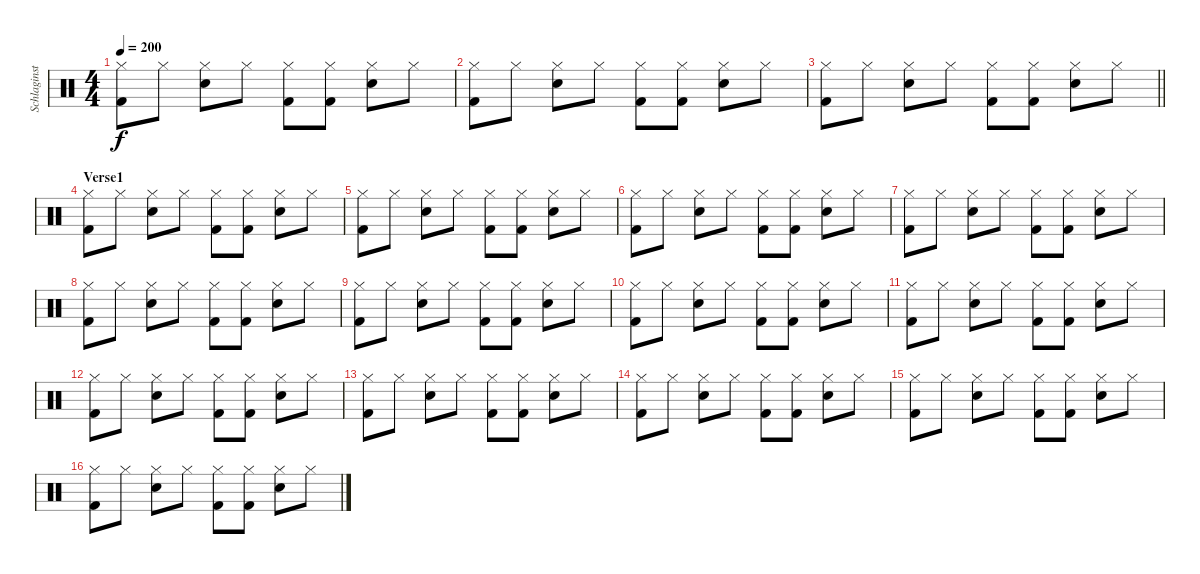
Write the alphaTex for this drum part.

\track ("Schlaginstrumente - Auswahl" "Schlaginst") {instrument percussion}
\staff {score}
\articulation defaults
\ts (4 4)
\tempo 200
\clef neutral
\ks c
("Hi-Hat (closed)" "Kick (hit) 2").8{dy f} "Hi-Hat (closed)".8 ("Hi-Hat (closed)" "Electric Snare (hit)").8 "Hi-Hat (closed)".8 ("Hi-Hat (closed)" "Kick (hit) 2").8 ("Hi-Hat (closed)" "Kick (hit) 2").8 ("Hi-Hat (closed)" "Electric Snare (hit)").8 "Hi-Hat (closed)".8 |
("Hi-Hat (closed)" "Kick (hit) 2").8 "Hi-Hat (closed)".8 ("Hi-Hat (closed)" "Electric Snare (hit)").8 "Hi-Hat (closed)".8 ("Hi-Hat (closed)" "Kick (hit) 2").8 ("Hi-Hat (closed)" "Kick (hit) 2").8 ("Hi-Hat (closed)" "Electric Snare (hit)").8 "Hi-Hat (closed)".8 |
\barLineRight lightlight
("Hi-Hat (closed)" "Kick (hit) 2").8 "Hi-Hat (closed)".8 ("Hi-Hat (closed)" "Electric Snare (hit)").8 "Hi-Hat (closed)".8 ("Hi-Hat (closed)" "Kick (hit) 2").8 ("Hi-Hat (closed)" "Kick (hit) 2").8 ("Hi-Hat (closed)" "Electric Snare (hit)").8 "Hi-Hat (closed)".8 |
\section ("" "Verse1")
("Hi-Hat (closed)" "Kick (hit) 2").8 "Hi-Hat (closed)".8 ("Hi-Hat (closed)" "Electric Snare (hit)").8 "Hi-Hat (closed)".8 ("Hi-Hat (closed)" "Kick (hit) 2").8 ("Hi-Hat (closed)" "Kick (hit) 2").8 ("Hi-Hat (closed)" "Electric Snare (hit)").8 "Hi-Hat (closed)".8 |
("Hi-Hat (closed)" "Kick (hit) 2").8 "Hi-Hat (closed)".8 ("Hi-Hat (closed)" "Electric Snare (hit)").8 "Hi-Hat (closed)".8 ("Hi-Hat (closed)" "Kick (hit) 2").8 ("Hi-Hat (closed)" "Kick (hit) 2").8 ("Hi-Hat (closed)" "Electric Snare (hit)").8 "Hi-Hat (closed)".8 |
("Hi-Hat (closed)" "Kick (hit) 2").8 "Hi-Hat (closed)".8 ("Hi-Hat (closed)" "Electric Snare (hit)").8 "Hi-Hat (closed)".8 ("Hi-Hat (closed)" "Kick (hit) 2").8 ("Hi-Hat (closed)" "Kick (hit) 2").8 ("Hi-Hat (closed)" "Electric Snare (hit)").8 "Hi-Hat (closed)".8 |
("Hi-Hat (closed)" "Kick (hit) 2").8 "Hi-Hat (closed)".8 ("Hi-Hat (closed)" "Electric Snare (hit)").8 "Hi-Hat (closed)".8 ("Hi-Hat (closed)" "Kick (hit) 2").8 ("Hi-Hat (closed)" "Kick (hit) 2").8 ("Hi-Hat (closed)" "Electric Snare (hit)").8 "Hi-Hat (closed)".8 |
("Hi-Hat (closed)" "Kick (hit) 2").8 "Hi-Hat (closed)".8 ("Hi-Hat (closed)" "Electric Snare (hit)").8 "Hi-Hat (closed)".8 ("Hi-Hat (closed)" "Kick (hit) 2").8 ("Hi-Hat (closed)" "Kick (hit) 2").8 ("Hi-Hat (closed)" "Electric Snare (hit)").8 "Hi-Hat (closed)".8 |
("Hi-Hat (closed)" "Kick (hit) 2").8 "Hi-Hat (closed)".8 ("Hi-Hat (closed)" "Electric Snare (hit)").8 "Hi-Hat (closed)".8 ("Hi-Hat (closed)" "Kick (hit) 2").8 ("Hi-Hat (closed)" "Kick (hit) 2").8 ("Hi-Hat (closed)" "Electric Snare (hit)").8 "Hi-Hat (closed)".8 |
("Hi-Hat (closed)" "Kick (hit) 2").8 "Hi-Hat (closed)".8 ("Hi-Hat (closed)" "Electric Snare (hit)").8 "Hi-Hat (closed)".8 ("Hi-Hat (closed)" "Kick (hit) 2").8 ("Hi-Hat (closed)" "Kick (hit) 2").8 ("Hi-Hat (closed)" "Electric Snare (hit)").8 "Hi-Hat (closed)".8 |
("Hi-Hat (closed)" "Kick (hit) 2").8 "Hi-Hat (closed)".8 ("Hi-Hat (closed)" "Electric Snare (hit)").8 "Hi-Hat (closed)".8 ("Hi-Hat (closed)" "Kick (hit) 2").8 ("Hi-Hat (closed)" "Kick (hit) 2").8 ("Hi-Hat (closed)" "Electric Snare (hit)").8 "Hi-Hat (closed)".8 |
("Hi-Hat (closed)" "Kick (hit) 2").8 "Hi-Hat (closed)".8 ("Hi-Hat (closed)" "Electric Snare (hit)").8 "Hi-Hat (closed)".8 ("Hi-Hat (closed)" "Kick (hit) 2").8 ("Hi-Hat (closed)" "Kick (hit) 2").8 ("Hi-Hat (closed)" "Electric Snare (hit)").8 "Hi-Hat (closed)".8 |
("Hi-Hat (closed)" "Kick (hit) 2").8 "Hi-Hat (closed)".8 ("Hi-Hat (closed)" "Electric Snare (hit)").8 "Hi-Hat (closed)".8 ("Hi-Hat (closed)" "Kick (hit) 2").8 ("Hi-Hat (closed)" "Kick (hit) 2").8 ("Hi-Hat (closed)" "Electric Snare (hit)").8 "Hi-Hat (closed)".8 |
("Hi-Hat (closed)" "Kick (hit) 2").8 "Hi-Hat (closed)".8 ("Hi-Hat (closed)" "Electric Snare (hit)").8 "Hi-Hat (closed)".8 ("Hi-Hat (closed)" "Kick (hit) 2").8 ("Hi-Hat (closed)" "Kick (hit) 2").8 ("Hi-Hat (closed)" "Electric Snare (hit)").8 "Hi-Hat (closed)".8 |
("Hi-Hat (closed)" "Kick (hit) 2").8 "Hi-Hat (closed)".8 ("Hi-Hat (closed)" "Electric Snare (hit)").8 "Hi-Hat (closed)".8 ("Hi-Hat (closed)" "Kick (hit) 2").8 ("Hi-Hat (closed)" "Kick (hit) 2").8 ("Hi-Hat (closed)" "Electric Snare (hit)").8 "Hi-Hat (closed)".8 |
("Hi-Hat (closed)" "Kick (hit) 2").8 "Hi-Hat (closed)".8 ("Hi-Hat (closed)" "Electric Snare (hit)").8 "Hi-Hat (closed)".8 ("Hi-Hat (closed)" "Kick (hit) 2").8 ("Hi-Hat (closed)" "Kick (hit) 2").8 ("Hi-Hat (closed)" "Electric Snare (hit)").8 "Hi-Hat (closed)".8
